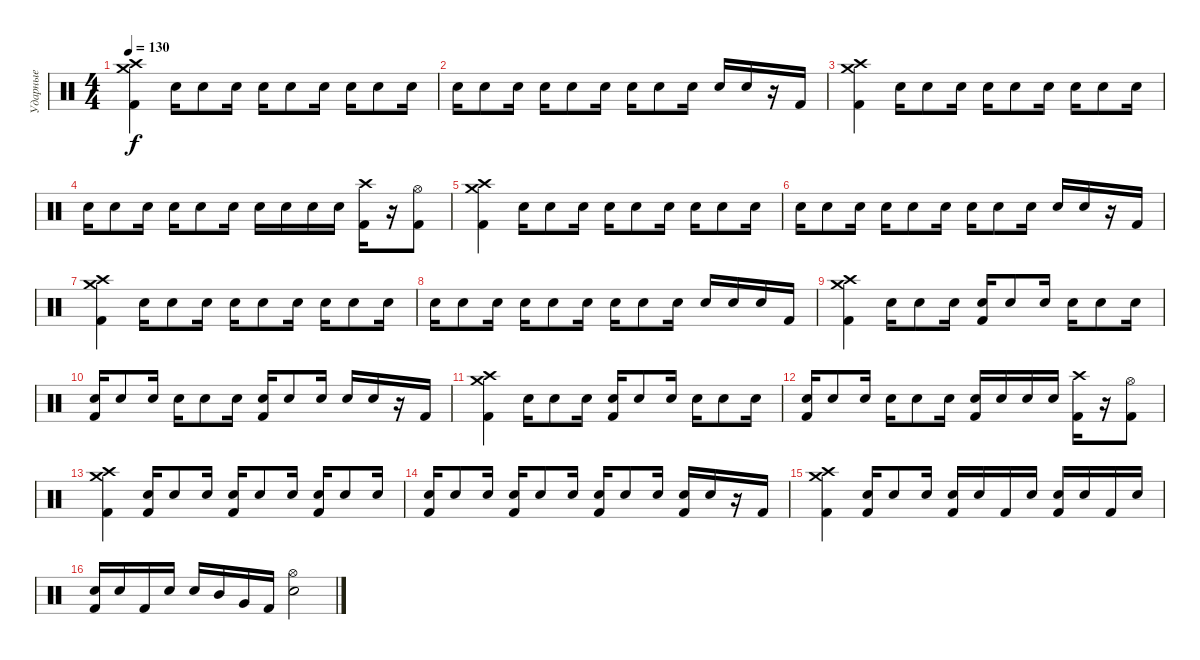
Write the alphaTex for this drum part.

\track ("Ударные" "Ударные") {instrument percussion}
\staff {score}
\articulation defaults
\ts (4 4)
\tempo 130
\clef neutral
\ks c
("Crash medium (hit)" "Crash high (hit)" "Kick (hit) 2").4{dy f} "Electric Snare (hit)".16 "Electric Snare (hit)".8 "Electric Snare (hit)".16 "Electric Snare (hit)".16 "Electric Snare (hit)".8 "Electric Snare (hit)".16 "Electric Snare (hit)".16 "Electric Snare (hit)".8 "Electric Snare (hit)".16 |
"Electric Snare (hit)".16 "Electric Snare (hit)".8 "Electric Snare (hit)".16 "Electric Snare (hit)".16 "Electric Snare (hit)".8 "Electric Snare (hit)".16 "Electric Snare (hit)".16 "Electric Snare (hit)".8 "Electric Snare (hit)".16 "Electric Snare (hit)".16 "Electric Snare (hit)".16 r.16 "Kick (hit) 2".16 |
("Crash medium (hit)" "Crash high (hit)" "Kick (hit) 2").4 "Electric Snare (hit)".16 "Electric Snare (hit)".8 "Electric Snare (hit)".16 "Electric Snare (hit)".16 "Electric Snare (hit)".8 "Electric Snare (hit)".16 "Electric Snare (hit)".16 "Electric Snare (hit)".8 "Electric Snare (hit)".16 |
"Electric Snare (hit)".16 "Electric Snare (hit)".8 "Electric Snare (hit)".16 "Electric Snare (hit)".16 "Electric Snare (hit)".8 "Electric Snare (hit)".16 "Electric Snare (hit)".16 "Electric Snare (hit)".16 "Electric Snare (hit)".16 "Electric Snare (hit)".16 ("Crash high (hit)" "Kick (hit) 2").16 r.16 ("Hi-Hat (open)" "Kick (hit) 2").8 |
("Crash medium (hit)" "Crash high (hit)" "Kick (hit) 2").4 "Electric Snare (hit)".16 "Electric Snare (hit)".8 "Electric Snare (hit)".16 "Electric Snare (hit)".16 "Electric Snare (hit)".8 "Electric Snare (hit)".16 "Electric Snare (hit)".16 "Electric Snare (hit)".8 "Electric Snare (hit)".16 |
"Electric Snare (hit)".16 "Electric Snare (hit)".8 "Electric Snare (hit)".16 "Electric Snare (hit)".16 "Electric Snare (hit)".8 "Electric Snare (hit)".16 "Electric Snare (hit)".16 "Electric Snare (hit)".8 "Electric Snare (hit)".16 "Electric Snare (hit)".16 "Electric Snare (hit)".16 r.16 "Kick (hit) 2".16 |
("Crash medium (hit)" "Crash high (hit)" "Kick (hit) 2").4 "Electric Snare (hit)".16 "Electric Snare (hit)".8 "Electric Snare (hit)".16 "Electric Snare (hit)".16 "Electric Snare (hit)".8 "Electric Snare (hit)".16 "Electric Snare (hit)".16 "Electric Snare (hit)".8 "Electric Snare (hit)".16 |
"Electric Snare (hit)".16 "Electric Snare (hit)".8 "Electric Snare (hit)".16 "Electric Snare (hit)".16 "Electric Snare (hit)".8 "Electric Snare (hit)".16 "Electric Snare (hit)".16 "Electric Snare (hit)".8 "Electric Snare (hit)".16 "Electric Snare (hit)".16 "Electric Snare (hit)".16 "Electric Snare (hit)".16 "Kick (hit) 2".16 |
("Crash medium (hit)" "Crash high (hit)" "Kick (hit) 2").4 "Electric Snare (hit)".16 "Electric Snare (hit)".8 "Electric Snare (hit)".16 ("Electric Snare (hit)" "Kick (hit) 2").16 "Electric Snare (hit)".8 "Electric Snare (hit)".16 "Electric Snare (hit)".16 "Electric Snare (hit)".8 "Electric Snare (hit)".16 |
("Electric Snare (hit)" "Kick (hit) 2").16 "Electric Snare (hit)".8 "Electric Snare (hit)".16 "Electric Snare (hit)".16 "Electric Snare (hit)".8 "Electric Snare (hit)".16 ("Electric Snare (hit)" "Kick (hit) 2").16 "Electric Snare (hit)".8 "Electric Snare (hit)".16 "Electric Snare (hit)".16 "Electric Snare (hit)".16 r.16 "Kick (hit) 2".16 |
("Crash medium (hit)" "Crash high (hit)" "Kick (hit) 2").4 "Electric Snare (hit)".16 "Electric Snare (hit)".8 "Electric Snare (hit)".16 ("Electric Snare (hit)" "Kick (hit) 2").16 "Electric Snare (hit)".8 "Electric Snare (hit)".16 "Electric Snare (hit)".16 "Electric Snare (hit)".8 "Electric Snare (hit)".16 |
("Electric Snare (hit)" "Kick (hit) 2").16 "Electric Snare (hit)".8 "Electric Snare (hit)".16 "Electric Snare (hit)".16 "Electric Snare (hit)".8 "Electric Snare (hit)".16 ("Electric Snare (hit)" "Kick (hit) 2").16 "Electric Snare (hit)".16 "Electric Snare (hit)".16 "Electric Snare (hit)".16 ("Crash high (hit)" "Kick (hit) 2").16 r.16 ("Hi-Hat (open)" "Kick (hit) 2").8 |
("Crash medium (hit)" "Crash high (hit)" "Kick (hit) 2").4 ("Electric Snare (hit)" "Kick (hit) 2").16 "Electric Snare (hit)".8 "Electric Snare (hit)".16 ("Electric Snare (hit)" "Kick (hit) 2").16 "Electric Snare (hit)".8 "Electric Snare (hit)".16 ("Electric Snare (hit)" "Kick (hit) 2").16 "Electric Snare (hit)".8 "Electric Snare (hit)".16 |
("Electric Snare (hit)" "Kick (hit) 2").16 "Electric Snare (hit)".8 "Electric Snare (hit)".16 ("Electric Snare (hit)" "Kick (hit) 2").16 "Electric Snare (hit)".8 "Electric Snare (hit)".16 ("Electric Snare (hit)" "Kick (hit) 2").16 "Electric Snare (hit)".8 "Electric Snare (hit)".16 ("Electric Snare (hit)" "Kick (hit) 2").16 "Electric Snare (hit)".16 r.16 "Kick (hit) 2".16 |
("Crash medium (hit)" "Crash high (hit)" "Kick (hit) 2").4 ("Electric Snare (hit)" "Kick (hit) 2").16 "Electric Snare (hit)".8 "Electric Snare (hit)".16 ("Electric Snare (hit)" "Kick (hit) 2").16 "Electric Snare (hit)".16 "Kick (hit) 2".16 "Electric Snare (hit)".16 ("Electric Snare (hit)" "Kick (hit) 2").16 "Electric Snare (hit)".16 "Kick (hit) 2".16 "Electric Snare (hit)".16 |
("Electric Snare (hit)" "Kick (hit) 2").16 "Electric Snare (hit)".16 "Kick (hit) 2".16 "Electric Snare (hit)".16 "Electric Snare (hit)".16 "Mid Tom (hit)".16 "Very Low Tom (hit)".16 "Kick (hit) 2".16 ("Hi-Hat (open)" "Electric Snare (hit)").2
